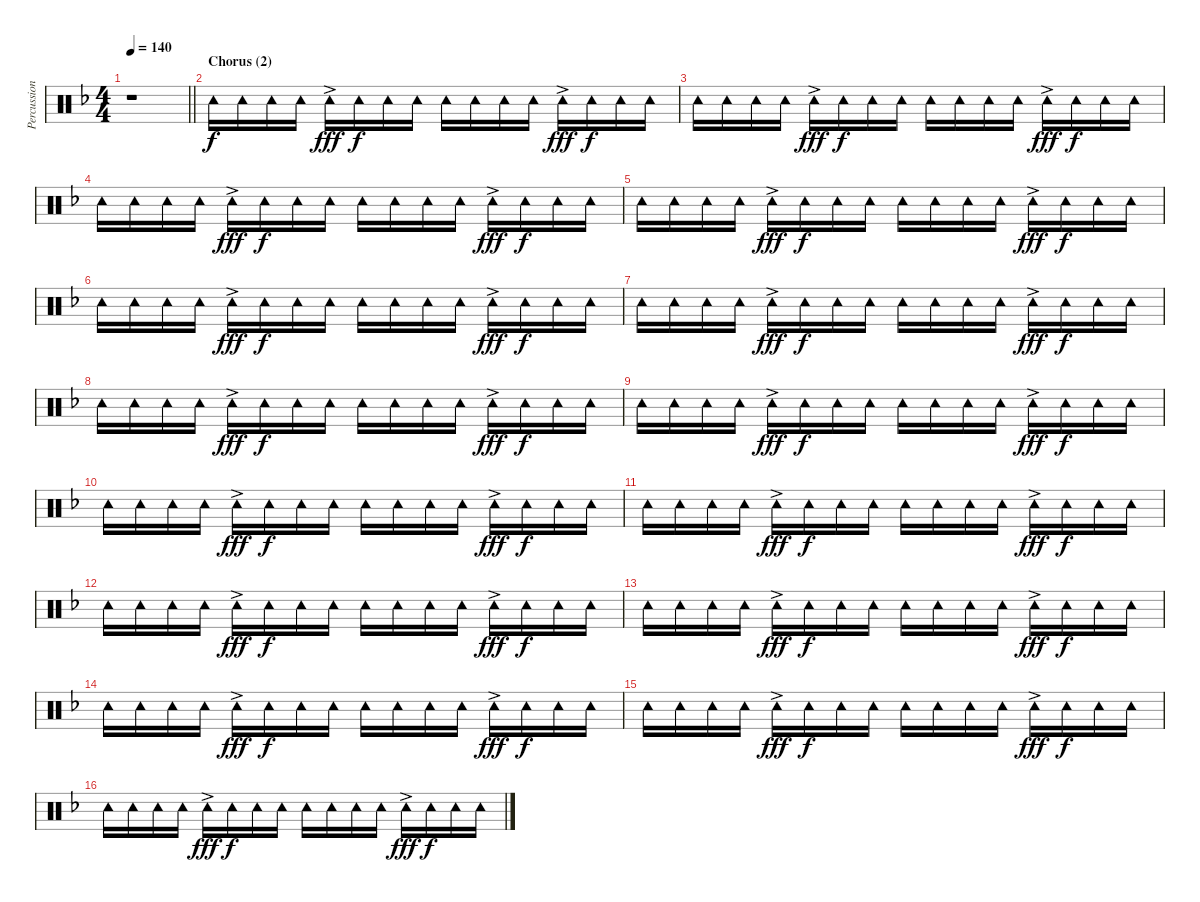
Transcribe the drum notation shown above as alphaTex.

\track ("Percussion" "Percussion") {instrument percussion}
\staff {score}
\articulation defaults
\ts (4 4)
\tempo 140
\clef neutral
\barLineRight lightlight
\ks f
r.1{dy f} |
\section ("" "Chorus (2)")
"Tambourine (hit)".16 "Tambourine (hit)".16 "Tambourine (hit)".16 "Tambourine (hit)".16 "Tambourine (hit)"{ac}.16{dy fff} "Tambourine (hit)".16{dy f} "Tambourine (hit)".16 "Tambourine (hit)".16 "Tambourine (hit)".16 "Tambourine (hit)".16 "Tambourine (hit)".16 "Tambourine (hit)".16 "Tambourine (hit)"{ac}.16{dy fff} "Tambourine (hit)".16{dy f} "Tambourine (hit)".16 "Tambourine (hit)".16 |
"Tambourine (hit)".16 "Tambourine (hit)".16 "Tambourine (hit)".16 "Tambourine (hit)".16 "Tambourine (hit)"{ac}.16{dy fff} "Tambourine (hit)".16{dy f} "Tambourine (hit)".16 "Tambourine (hit)".16 "Tambourine (hit)".16 "Tambourine (hit)".16 "Tambourine (hit)".16 "Tambourine (hit)".16 "Tambourine (hit)"{ac}.16{dy fff} "Tambourine (hit)".16{dy f} "Tambourine (hit)".16 "Tambourine (hit)".16 |
"Tambourine (hit)".16 "Tambourine (hit)".16 "Tambourine (hit)".16 "Tambourine (hit)".16 "Tambourine (hit)"{ac}.16{dy fff} "Tambourine (hit)".16{dy f} "Tambourine (hit)".16 "Tambourine (hit)".16 "Tambourine (hit)".16 "Tambourine (hit)".16 "Tambourine (hit)".16 "Tambourine (hit)".16 "Tambourine (hit)"{ac}.16{dy fff} "Tambourine (hit)".16{dy f} "Tambourine (hit)".16 "Tambourine (hit)".16 |
"Tambourine (hit)".16 "Tambourine (hit)".16 "Tambourine (hit)".16 "Tambourine (hit)".16 "Tambourine (hit)"{ac}.16{dy fff} "Tambourine (hit)".16{dy f} "Tambourine (hit)".16 "Tambourine (hit)".16 "Tambourine (hit)".16 "Tambourine (hit)".16 "Tambourine (hit)".16 "Tambourine (hit)".16 "Tambourine (hit)"{ac}.16{dy fff} "Tambourine (hit)".16{dy f} "Tambourine (hit)".16 "Tambourine (hit)".16 |
"Tambourine (hit)".16 "Tambourine (hit)".16 "Tambourine (hit)".16 "Tambourine (hit)".16 "Tambourine (hit)"{ac}.16{dy fff} "Tambourine (hit)".16{dy f} "Tambourine (hit)".16 "Tambourine (hit)".16 "Tambourine (hit)".16 "Tambourine (hit)".16 "Tambourine (hit)".16 "Tambourine (hit)".16 "Tambourine (hit)"{ac}.16{dy fff} "Tambourine (hit)".16{dy f} "Tambourine (hit)".16 "Tambourine (hit)".16 |
"Tambourine (hit)".16 "Tambourine (hit)".16 "Tambourine (hit)".16 "Tambourine (hit)".16 "Tambourine (hit)"{ac}.16{dy fff} "Tambourine (hit)".16{dy f} "Tambourine (hit)".16 "Tambourine (hit)".16 "Tambourine (hit)".16 "Tambourine (hit)".16 "Tambourine (hit)".16 "Tambourine (hit)".16 "Tambourine (hit)"{ac}.16{dy fff} "Tambourine (hit)".16{dy f} "Tambourine (hit)".16 "Tambourine (hit)".16 |
"Tambourine (hit)".16 "Tambourine (hit)".16 "Tambourine (hit)".16 "Tambourine (hit)".16 "Tambourine (hit)"{ac}.16{dy fff} "Tambourine (hit)".16{dy f} "Tambourine (hit)".16 "Tambourine (hit)".16 "Tambourine (hit)".16 "Tambourine (hit)".16 "Tambourine (hit)".16 "Tambourine (hit)".16 "Tambourine (hit)"{ac}.16{dy fff} "Tambourine (hit)".16{dy f} "Tambourine (hit)".16 "Tambourine (hit)".16 |
"Tambourine (hit)".16 "Tambourine (hit)".16 "Tambourine (hit)".16 "Tambourine (hit)".16 "Tambourine (hit)"{ac}.16{dy fff} "Tambourine (hit)".16{dy f} "Tambourine (hit)".16 "Tambourine (hit)".16 "Tambourine (hit)".16 "Tambourine (hit)".16 "Tambourine (hit)".16 "Tambourine (hit)".16 "Tambourine (hit)"{ac}.16{dy fff} "Tambourine (hit)".16{dy f} "Tambourine (hit)".16 "Tambourine (hit)".16 |
"Tambourine (hit)".16 "Tambourine (hit)".16 "Tambourine (hit)".16 "Tambourine (hit)".16 "Tambourine (hit)"{ac}.16{dy fff} "Tambourine (hit)".16{dy f} "Tambourine (hit)".16 "Tambourine (hit)".16 "Tambourine (hit)".16 "Tambourine (hit)".16 "Tambourine (hit)".16 "Tambourine (hit)".16 "Tambourine (hit)"{ac}.16{dy fff} "Tambourine (hit)".16{dy f} "Tambourine (hit)".16 "Tambourine (hit)".16 |
"Tambourine (hit)".16 "Tambourine (hit)".16 "Tambourine (hit)".16 "Tambourine (hit)".16 "Tambourine (hit)"{ac}.16{dy fff} "Tambourine (hit)".16{dy f} "Tambourine (hit)".16 "Tambourine (hit)".16 "Tambourine (hit)".16 "Tambourine (hit)".16 "Tambourine (hit)".16 "Tambourine (hit)".16 "Tambourine (hit)"{ac}.16{dy fff} "Tambourine (hit)".16{dy f} "Tambourine (hit)".16 "Tambourine (hit)".16 |
"Tambourine (hit)".16 "Tambourine (hit)".16 "Tambourine (hit)".16 "Tambourine (hit)".16 "Tambourine (hit)"{ac}.16{dy fff} "Tambourine (hit)".16{dy f} "Tambourine (hit)".16 "Tambourine (hit)".16 "Tambourine (hit)".16 "Tambourine (hit)".16 "Tambourine (hit)".16 "Tambourine (hit)".16 "Tambourine (hit)"{ac}.16{dy fff} "Tambourine (hit)".16{dy f} "Tambourine (hit)".16 "Tambourine (hit)".16 |
"Tambourine (hit)".16 "Tambourine (hit)".16 "Tambourine (hit)".16 "Tambourine (hit)".16 "Tambourine (hit)"{ac}.16{dy fff} "Tambourine (hit)".16{dy f} "Tambourine (hit)".16 "Tambourine (hit)".16 "Tambourine (hit)".16 "Tambourine (hit)".16 "Tambourine (hit)".16 "Tambourine (hit)".16 "Tambourine (hit)"{ac}.16{dy fff} "Tambourine (hit)".16{dy f} "Tambourine (hit)".16 "Tambourine (hit)".16 |
"Tambourine (hit)".16 "Tambourine (hit)".16 "Tambourine (hit)".16 "Tambourine (hit)".16 "Tambourine (hit)"{ac}.16{dy fff} "Tambourine (hit)".16{dy f} "Tambourine (hit)".16 "Tambourine (hit)".16 "Tambourine (hit)".16 "Tambourine (hit)".16 "Tambourine (hit)".16 "Tambourine (hit)".16 "Tambourine (hit)"{ac}.16{dy fff} "Tambourine (hit)".16{dy f} "Tambourine (hit)".16 "Tambourine (hit)".16 |
"Tambourine (hit)".16 "Tambourine (hit)".16 "Tambourine (hit)".16 "Tambourine (hit)".16 "Tambourine (hit)"{ac}.16{dy fff} "Tambourine (hit)".16{dy f} "Tambourine (hit)".16 "Tambourine (hit)".16 "Tambourine (hit)".16 "Tambourine (hit)".16 "Tambourine (hit)".16 "Tambourine (hit)".16 "Tambourine (hit)"{ac}.16{dy fff} "Tambourine (hit)".16{dy f} "Tambourine (hit)".16 "Tambourine (hit)".16 |
"Tambourine (hit)".16 "Tambourine (hit)".16 "Tambourine (hit)".16 "Tambourine (hit)".16 "Tambourine (hit)"{ac}.16{dy fff} "Tambourine (hit)".16{dy f} "Tambourine (hit)".16 "Tambourine (hit)".16 "Tambourine (hit)".16 "Tambourine (hit)".16 "Tambourine (hit)".16 "Tambourine (hit)".16 "Tambourine (hit)"{ac}.16{dy fff} "Tambourine (hit)".16{dy f} "Tambourine (hit)".16 "Tambourine (hit)".16
